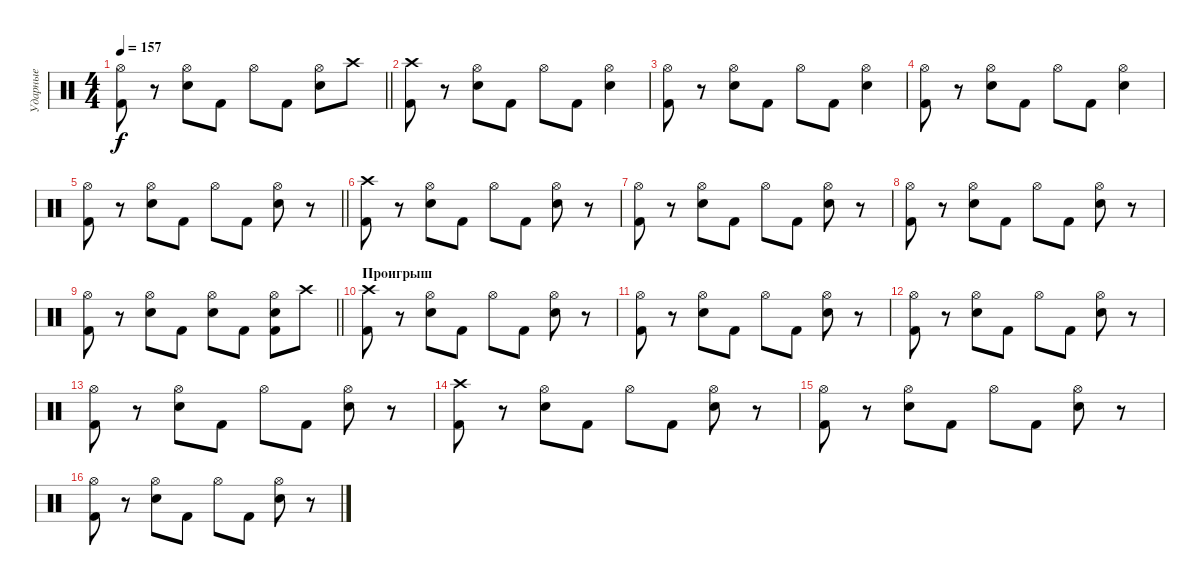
\track ("Ударные" "Ударные") {instrument percussion}
\staff {score}
\articulation defaults
\ts (4 4)
\tempo 157
\clef neutral
\barLineRight lightlight
\ks c
("Hi-Hat (open)" "Kick (hit) 2").8{dy f} r.8 ("Hi-Hat (open)" "Snare (hit) 2").8 "Kick (hit) 2".8 "Hi-Hat (open)".8 "Kick (hit) 2".8 ("Hi-Hat (open)" "Snare (hit) 2").8 "Crash high (hit)".8 |
("Crash high (hit)" "Kick (hit) 2").8 r.8 ("Hi-Hat (open)" "Snare (hit) 2").8 "Kick (hit) 2".8 "Hi-Hat (open)".8 "Kick (hit) 2".8 ("Hi-Hat (open)" "Snare (hit) 2").4 |
("Hi-Hat (open)" "Kick (hit) 2").8 r.8 ("Hi-Hat (open)" "Snare (hit) 2").8 "Kick (hit) 2".8 "Hi-Hat (open)".8 "Kick (hit) 2".8 ("Hi-Hat (open)" "Snare (hit) 2").4 |
("Hi-Hat (open)" "Kick (hit) 2").8 r.8 ("Hi-Hat (open)" "Snare (hit) 2").8 "Kick (hit) 2".8 "Hi-Hat (open)".8 "Kick (hit) 2".8 ("Hi-Hat (open)" "Snare (hit) 2").4 |
\barLineRight lightlight
("Hi-Hat (open)" "Kick (hit) 2").8 r.8 ("Hi-Hat (open)" "Snare (hit) 2").8 "Kick (hit) 2".8 "Hi-Hat (open)".8 "Kick (hit) 2".8 ("Hi-Hat (open)" "Snare (hit) 2").8 r.8 |
("Crash high (hit)" "Kick (hit) 2").8 r.8 ("Hi-Hat (open)" "Snare (hit) 2").8 "Kick (hit) 2".8 "Hi-Hat (open)".8 "Kick (hit) 2".8 ("Hi-Hat (open)" "Snare (hit) 2").8 r.8 |
("Hi-Hat (open)" "Kick (hit) 2").8 r.8 ("Hi-Hat (open)" "Snare (hit) 2").8 "Kick (hit) 2".8 "Hi-Hat (open)".8 "Kick (hit) 2".8 ("Hi-Hat (open)" "Snare (hit) 2").8 r.8 |
("Hi-Hat (open)" "Kick (hit) 2").8 r.8 ("Hi-Hat (open)" "Snare (hit) 2").8 "Kick (hit) 2".8 "Hi-Hat (open)".8 "Kick (hit) 2".8 ("Hi-Hat (open)" "Snare (hit) 2").8 r.8 |
\barLineRight lightlight
("Hi-Hat (open)" "Kick (hit) 2").8 r.8 ("Hi-Hat (open)" "Snare (hit) 2").8 "Kick (hit) 2".8 ("Hi-Hat (open)" "Snare (hit) 2").8 "Kick (hit) 2".8 ("Hi-Hat (open)" "Snare (hit) 2" "Kick (hit) 2").8 "Crash high (hit)".8 |
\section ("" "Проигрыш")
("Crash high (hit)" "Kick (hit) 2").8 r.8 ("Hi-Hat (open)" "Snare (hit) 2").8 "Kick (hit) 2".8 "Hi-Hat (open)".8 "Kick (hit) 2".8 ("Hi-Hat (open)" "Snare (hit) 2").8 r.8 |
("Hi-Hat (open)" "Kick (hit) 2").8 r.8 ("Hi-Hat (open)" "Snare (hit) 2").8 "Kick (hit) 2".8 "Hi-Hat (open)".8 "Kick (hit) 2".8 ("Hi-Hat (open)" "Snare (hit) 2").8 r.8 |
("Hi-Hat (open)" "Kick (hit) 2").8 r.8 ("Hi-Hat (open)" "Snare (hit) 2").8 "Kick (hit) 2".8 "Hi-Hat (open)".8 "Kick (hit) 2".8 ("Hi-Hat (open)" "Snare (hit) 2").8 r.8 |
("Hi-Hat (open)" "Kick (hit) 2").8 r.8 ("Hi-Hat (open)" "Snare (hit) 2").8 "Kick (hit) 2".8 "Hi-Hat (open)".8 "Kick (hit) 2".8 ("Hi-Hat (open)" "Snare (hit) 2").8 r.8 |
("Crash high (hit)" "Kick (hit) 2").8 r.8 ("Hi-Hat (open)" "Snare (hit) 2").8 "Kick (hit) 2".8 "Hi-Hat (open)".8 "Kick (hit) 2".8 ("Hi-Hat (open)" "Snare (hit) 2").8 r.8 |
("Hi-Hat (open)" "Kick (hit) 2").8 r.8 ("Hi-Hat (open)" "Snare (hit) 2").8 "Kick (hit) 2".8 "Hi-Hat (open)".8 "Kick (hit) 2".8 ("Hi-Hat (open)" "Snare (hit) 2").8 r.8 |
("Hi-Hat (open)" "Kick (hit) 2").8 r.8 ("Hi-Hat (open)" "Snare (hit) 2").8 "Kick (hit) 2".8 "Hi-Hat (open)".8 "Kick (hit) 2".8 ("Hi-Hat (open)" "Snare (hit) 2").8 r.8
